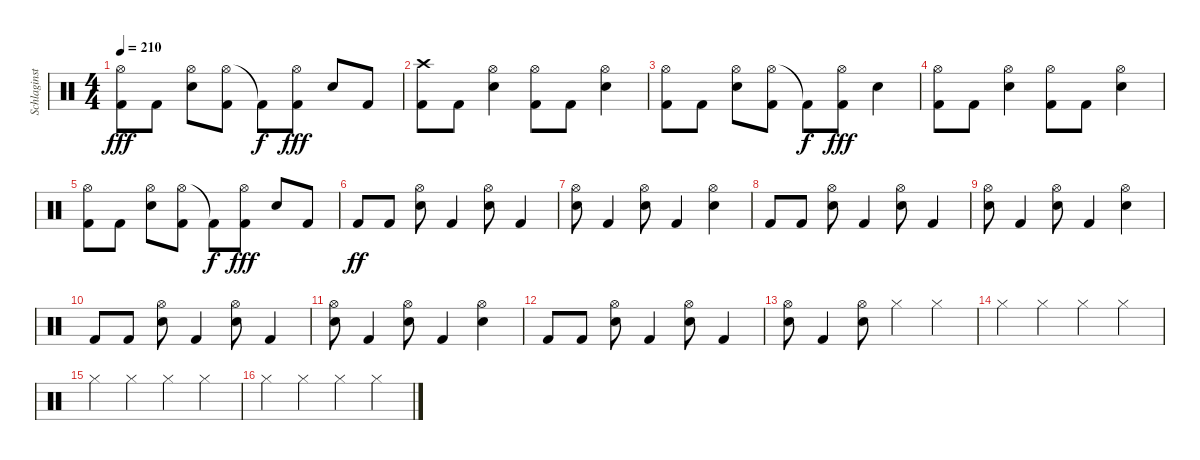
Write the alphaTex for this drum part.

\track ("Schlaginstrumente - Auswahl" "Schlaginst") {instrument percussion}
\staff {score}
\articulation defaults
\ts (4 4)
\tempo 210
\clef neutral
\ks c
("Hi-Hat (open)" "Kick (hit) 2").8{dy fff} "Kick (hit) 2".8 ("Hi-Hat (open)" "Electric Snare (hit)").8 ("Hi-Hat (open)" "Kick (hit) 2").8 "Kick (hit) 2"{t}.8{dy f} ("Hi-Hat (open)" "Kick (hit) 2").8{dy fff} "Electric Snare (hit)".8 "Kick (hit) 2".8 |
("Crash high (hit)" "Kick (hit) 2").8 "Kick (hit) 2".8 ("Hi-Hat (open)" "Electric Snare (hit)").4 ("Hi-Hat (open)" "Kick (hit) 2").8 "Kick (hit) 2".8 ("Hi-Hat (open)" "Electric Snare (hit)").4 |
("Hi-Hat (open)" "Kick (hit) 2").8 "Kick (hit) 2".8 ("Hi-Hat (open)" "Electric Snare (hit)").8 ("Hi-Hat (open)" "Kick (hit) 2").8 "Kick (hit) 2"{t}.8{dy f} ("Hi-Hat (open)" "Kick (hit) 2").8{dy fff} "Electric Snare (hit)".4 |
("Hi-Hat (open)" "Kick (hit) 2").8 "Kick (hit) 2".8 ("Hi-Hat (open)" "Electric Snare (hit)").4 ("Hi-Hat (open)" "Kick (hit) 2").8 "Kick (hit) 2".8 ("Hi-Hat (open)" "Electric Snare (hit)").4 |
("Hi-Hat (open)" "Kick (hit) 2").8 "Kick (hit) 2".8 ("Hi-Hat (open)" "Electric Snare (hit)").8 ("Hi-Hat (open)" "Kick (hit) 2").8 "Kick (hit) 2"{t}.8{dy f} ("Hi-Hat (open)" "Kick (hit) 2").8{dy fff} "Electric Snare (hit)".8 "Kick (hit) 2".8 |
"Kick (hit) 2".8{dy ff} "Kick (hit) 2".8 ("Hi-Hat (open)" "Electric Snare (hit)").8 "Kick (hit) 2".4 ("Hi-Hat (open)" "Electric Snare (hit)").8 "Kick (hit) 2".4 |
("Hi-Hat (open)" "Electric Snare (hit)").8 "Kick (hit) 2".4 ("Hi-Hat (open)" "Electric Snare (hit)").8 "Kick (hit) 2".4 ("Hi-Hat (open)" "Electric Snare (hit)").4 |
"Kick (hit) 2".8 "Kick (hit) 2".8 ("Hi-Hat (open)" "Electric Snare (hit)").8 "Kick (hit) 2".4 ("Hi-Hat (open)" "Electric Snare (hit)").8 "Kick (hit) 2".4 |
("Hi-Hat (open)" "Electric Snare (hit)").8 "Kick (hit) 2".4 ("Hi-Hat (open)" "Electric Snare (hit)").8 "Kick (hit) 2".4 ("Hi-Hat (open)" "Electric Snare (hit)").4 |
"Kick (hit) 2".8 "Kick (hit) 2".8 ("Hi-Hat (open)" "Electric Snare (hit)").8 "Kick (hit) 2".4 ("Hi-Hat (open)" "Electric Snare (hit)").8 "Kick (hit) 2".4 |
("Hi-Hat (open)" "Electric Snare (hit)").8 "Kick (hit) 2".4 ("Hi-Hat (open)" "Electric Snare (hit)").8 "Kick (hit) 2".4 ("Hi-Hat (open)" "Electric Snare (hit)").4 |
"Kick (hit) 2".8 "Kick (hit) 2".8 ("Hi-Hat (open)" "Electric Snare (hit)").8 "Kick (hit) 2".4 ("Hi-Hat (open)" "Electric Snare (hit)").8 "Kick (hit) 2".4 |
("Hi-Hat (open)" "Electric Snare (hit)").8 "Kick (hit) 2".4 ("Hi-Hat (open)" "Electric Snare (hit)").8 "Hi-Hat (closed)".4 "Hi-Hat (closed)".4 |
"Hi-Hat (closed)".4 "Hi-Hat (closed)".4 "Hi-Hat (closed)".4 "Hi-Hat (closed)".4 |
"Hi-Hat (closed)".4 "Hi-Hat (closed)".4 "Hi-Hat (closed)".4 "Hi-Hat (closed)".4 |
"Hi-Hat (closed)".4 "Hi-Hat (closed)".4 "Hi-Hat (closed)".4 "Hi-Hat (closed)".4
